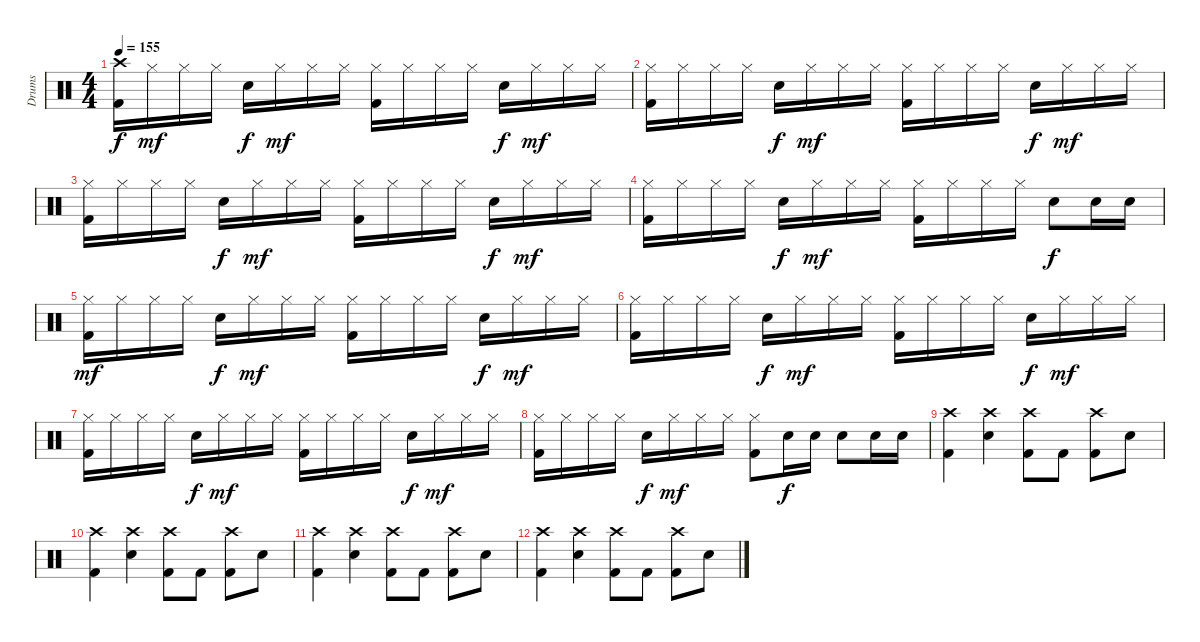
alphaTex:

\track ("Drums" "Drums") {instrument percussion}
\staff {score}
\articulation defaults
\ts (4 4)
\tempo 155
\clef neutral
\ks c
("Crash high (hit)" "Kick (hit) 2").16{dy f} "Hi-Hat (closed)".16{dy mf} "Hi-Hat (closed)".16 "Hi-Hat (closed)".16 "Snare (hit) 2".16{dy f} "Hi-Hat (closed)".16{dy mf} "Hi-Hat (closed)".16 "Hi-Hat (closed)".16 ("Hi-Hat (closed)" "Kick (hit) 2").16 "Hi-Hat (closed)".16 "Hi-Hat (closed)".16 "Hi-Hat (closed)".16 "Snare (hit) 2".16{dy f} "Hi-Hat (closed)".16{dy mf} "Hi-Hat (closed)".16 "Hi-Hat (closed)".16 |
("Hi-Hat (closed)" "Kick (hit) 2").16 "Hi-Hat (closed)".16 "Hi-Hat (closed)".16 "Hi-Hat (closed)".16 "Snare (hit) 2".16{dy f} "Hi-Hat (closed)".16{dy mf} "Hi-Hat (closed)".16 "Hi-Hat (closed)".16 ("Hi-Hat (closed)" "Kick (hit) 2").16 "Hi-Hat (closed)".16 "Hi-Hat (closed)".16 "Hi-Hat (closed)".16 "Snare (hit) 2".16{dy f} "Hi-Hat (closed)".16{dy mf} "Hi-Hat (closed)".16 "Hi-Hat (closed)".16 |
("Hi-Hat (closed)" "Kick (hit) 2").16 "Hi-Hat (closed)".16 "Hi-Hat (closed)".16 "Hi-Hat (closed)".16 "Snare (hit) 2".16{dy f} "Hi-Hat (closed)".16{dy mf} "Hi-Hat (closed)".16 "Hi-Hat (closed)".16 ("Hi-Hat (closed)" "Kick (hit) 2").16 "Hi-Hat (closed)".16 "Hi-Hat (closed)".16 "Hi-Hat (closed)".16 "Snare (hit) 2".16{dy f} "Hi-Hat (closed)".16{dy mf} "Hi-Hat (closed)".16 "Hi-Hat (closed)".16 |
("Hi-Hat (closed)" "Kick (hit) 2").16 "Hi-Hat (closed)".16 "Hi-Hat (closed)".16 "Hi-Hat (closed)".16 "Snare (hit) 2".16{dy f} "Hi-Hat (closed)".16{dy mf} "Hi-Hat (closed)".16 "Hi-Hat (closed)".16 ("Hi-Hat (closed)" "Kick (hit) 2").16 "Hi-Hat (closed)".16 "Hi-Hat (closed)".16 "Hi-Hat (closed)".16 "Snare (hit) 2".8{dy f} "Snare (hit) 2".16 "Snare (hit) 2".16 |
("Hi-Hat (closed)" "Kick (hit) 2").16{dy mf} "Hi-Hat (closed)".16 "Hi-Hat (closed)".16 "Hi-Hat (closed)".16 "Snare (hit) 2".16{dy f} "Hi-Hat (closed)".16{dy mf} "Hi-Hat (closed)".16 "Hi-Hat (closed)".16 ("Hi-Hat (closed)" "Kick (hit) 2").16 "Hi-Hat (closed)".16 "Hi-Hat (closed)".16 "Hi-Hat (closed)".16 "Snare (hit) 2".16{dy f} "Hi-Hat (closed)".16{dy mf} "Hi-Hat (closed)".16 "Hi-Hat (closed)".16 |
("Hi-Hat (closed)" "Kick (hit) 2").16 "Hi-Hat (closed)".16 "Hi-Hat (closed)".16 "Hi-Hat (closed)".16 "Snare (hit) 2".16{dy f} "Hi-Hat (closed)".16{dy mf} "Hi-Hat (closed)".16 "Hi-Hat (closed)".16 ("Hi-Hat (closed)" "Kick (hit) 2").16 "Hi-Hat (closed)".16 "Hi-Hat (closed)".16 "Hi-Hat (closed)".16 "Snare (hit) 2".16{dy f} "Hi-Hat (closed)".16{dy mf} "Hi-Hat (closed)".16 "Hi-Hat (closed)".16 |
("Hi-Hat (closed)" "Kick (hit) 2").16 "Hi-Hat (closed)".16 "Hi-Hat (closed)".16 "Hi-Hat (closed)".16 "Snare (hit) 2".16{dy f} "Hi-Hat (closed)".16{dy mf} "Hi-Hat (closed)".16 "Hi-Hat (closed)".16 ("Hi-Hat (closed)" "Kick (hit) 2").16 "Hi-Hat (closed)".16 "Hi-Hat (closed)".16 "Hi-Hat (closed)".16 "Snare (hit) 2".16{dy f} "Hi-Hat (closed)".16{dy mf} "Hi-Hat (closed)".16 "Hi-Hat (closed)".16 |
("Hi-Hat (closed)" "Kick (hit) 2").16 "Hi-Hat (closed)".16 "Hi-Hat (closed)".16 "Hi-Hat (closed)".16 "Snare (hit) 2".16{dy f} "Hi-Hat (closed)".16{dy mf} "Hi-Hat (closed)".16 "Hi-Hat (closed)".16 ("Hi-Hat (closed)" "Kick (hit) 2").8 "Snare (hit) 2".16{dy f} "Snare (hit) 2".16 "Snare (hit) 2".8 "Snare (hit) 2".16 "Snare (hit) 2".16 |
("Crash high (hit)" "Kick (hit) 2").4 ("Crash high (hit)" "Snare (hit) 2").4 ("Crash high (hit)" "Kick (hit) 2").8 "Kick (hit) 2".8 ("Crash high (hit)" "Kick (hit) 2").8 "Snare (hit) 2".8 |
("Crash high (hit)" "Kick (hit) 2").4 ("Crash high (hit)" "Snare (hit) 2").4 ("Crash high (hit)" "Kick (hit) 2").8 "Kick (hit) 2".8 ("Crash high (hit)" "Kick (hit) 2").8 "Snare (hit) 2".8 |
("Crash high (hit)" "Kick (hit) 2").4 ("Crash high (hit)" "Snare (hit) 2").4 ("Crash high (hit)" "Kick (hit) 2").8 "Kick (hit) 2".8 ("Crash high (hit)" "Kick (hit) 2").8 "Snare (hit) 2".8 |
("Crash high (hit)" "Kick (hit) 2").4 ("Crash high (hit)" "Snare (hit) 2").4 ("Crash high (hit)" "Kick (hit) 2").8 "Kick (hit) 2".8 ("Crash high (hit)" "Kick (hit) 2").8 "Snare (hit) 2".8
